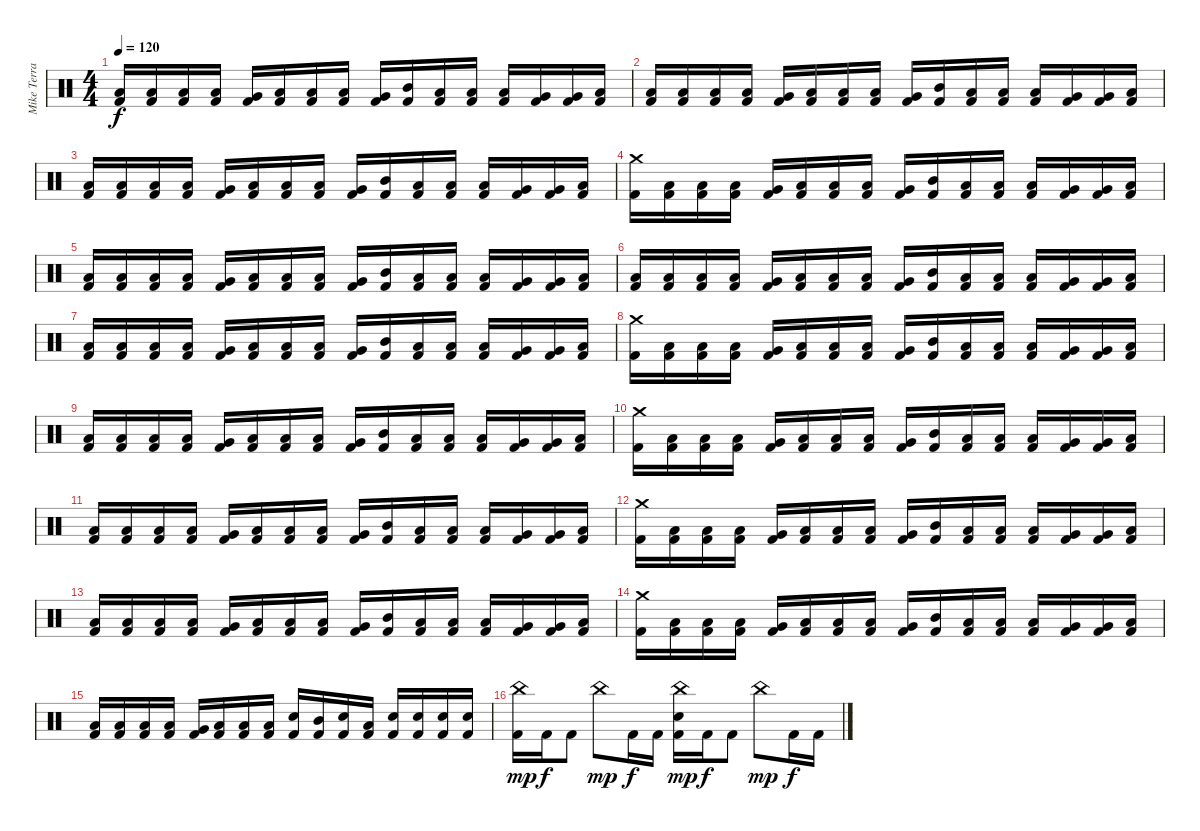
\track ("Mike Terrana" "Mike Terra") {instrument percussion}
\staff {score}
\articulation defaults
\ts (4 4)
\tempo 120
\clef neutral
\ks c
("Low Tom (hit)" "Kick (hit) 2").16{dy f} ("Low Floor Tom (hit)" "Kick (hit) 2").16 ("Low Floor Tom (hit)" "Kick (hit) 2").16 ("Low Floor Tom (hit)" "Kick (hit) 2").16 ("Very Low Tom (hit)" "Kick (hit) 2").16 ("Low Floor Tom (hit)" "Kick (hit) 2").16 ("Low Floor Tom (hit)" "Kick (hit) 2").16 ("Low Floor Tom (hit)" "Kick (hit) 2").16 ("Very Low Tom (hit)" "Kick (hit) 2").16 ("Mid Tom (hit)" "Kick (hit) 2").16 ("Low Floor Tom (hit)" "Kick (hit) 2").16 ("Low Tom (hit)" "Kick (hit) 2").16 ("Low Tom (hit)" "Kick (hit) 2").16 ("Very Low Tom (hit)" "Kick (hit) 2").16 ("Very Low Tom (hit)" "Kick (hit) 2").16 ("Low Floor Tom (hit)" "Kick (hit) 2").16 |
("Low Tom (hit)" "Kick (hit) 2").16 ("Low Floor Tom (hit)" "Kick (hit) 2").16 ("Low Floor Tom (hit)" "Kick (hit) 2").16 ("Low Floor Tom (hit)" "Kick (hit) 2").16 ("Very Low Tom (hit)" "Kick (hit) 2").16 ("Low Floor Tom (hit)" "Kick (hit) 2").16 ("Low Floor Tom (hit)" "Kick (hit) 2").16 ("Low Floor Tom (hit)" "Kick (hit) 2").16 ("Very Low Tom (hit)" "Kick (hit) 2").16 ("Mid Tom (hit)" "Kick (hit) 2").16 ("Low Floor Tom (hit)" "Kick (hit) 2").16 ("Low Tom (hit)" "Kick (hit) 2").16 ("Low Tom (hit)" "Kick (hit) 2").16 ("Very Low Tom (hit)" "Kick (hit) 2").16 ("Very Low Tom (hit)" "Kick (hit) 2").16 ("Low Floor Tom (hit)" "Kick (hit) 2").16 |
("Low Tom (hit)" "Kick (hit) 2").16 ("Low Floor Tom (hit)" "Kick (hit) 2").16 ("Low Floor Tom (hit)" "Kick (hit) 2").16 ("Low Floor Tom (hit)" "Kick (hit) 2").16 ("Very Low Tom (hit)" "Kick (hit) 2").16 ("Low Floor Tom (hit)" "Kick (hit) 2").16 ("Low Floor Tom (hit)" "Kick (hit) 2").16 ("Low Floor Tom (hit)" "Kick (hit) 2").16 ("Very Low Tom (hit)" "Kick (hit) 2").16 ("Mid Tom (hit)" "Kick (hit) 2").16 ("Low Floor Tom (hit)" "Kick (hit) 2").16 ("Low Tom (hit)" "Kick (hit) 2").16 ("Low Tom (hit)" "Kick (hit) 2").16 ("Very Low Tom (hit)" "Kick (hit) 2").16 ("Very Low Tom (hit)" "Kick (hit) 2").16 ("Low Floor Tom (hit)" "Kick (hit) 2").16 |
("Crash medium (hit)" "Kick (hit) 2").16 ("Low Floor Tom (hit)" "Kick (hit) 2").16 ("Low Floor Tom (hit)" "Kick (hit) 2").16 ("Low Floor Tom (hit)" "Kick (hit) 2").16 ("Very Low Tom (hit)" "Kick (hit) 2").16 ("Low Floor Tom (hit)" "Kick (hit) 2").16 ("Low Floor Tom (hit)" "Kick (hit) 2").16 ("Low Floor Tom (hit)" "Kick (hit) 2").16 ("Very Low Tom (hit)" "Kick (hit) 2").16 ("Mid Tom (hit)" "Kick (hit) 2").16 ("Low Floor Tom (hit)" "Kick (hit) 2").16 ("Low Tom (hit)" "Kick (hit) 2").16 ("Low Tom (hit)" "Kick (hit) 2").16 ("Very Low Tom (hit)" "Kick (hit) 2").16 ("Very Low Tom (hit)" "Kick (hit) 2").16 ("Low Floor Tom (hit)" "Kick (hit) 2").16 |
("Low Tom (hit)" "Kick (hit) 2").16 ("Low Floor Tom (hit)" "Kick (hit) 2").16 ("Low Floor Tom (hit)" "Kick (hit) 2").16 ("Low Floor Tom (hit)" "Kick (hit) 2").16 ("Very Low Tom (hit)" "Kick (hit) 2").16 ("Low Floor Tom (hit)" "Kick (hit) 2").16 ("Low Floor Tom (hit)" "Kick (hit) 2").16 ("Low Floor Tom (hit)" "Kick (hit) 2").16 ("Very Low Tom (hit)" "Kick (hit) 2").16 ("Mid Tom (hit)" "Kick (hit) 2").16 ("Low Floor Tom (hit)" "Kick (hit) 2").16 ("Low Tom (hit)" "Kick (hit) 2").16 ("Low Tom (hit)" "Kick (hit) 2").16 ("Very Low Tom (hit)" "Kick (hit) 2").16 ("Very Low Tom (hit)" "Kick (hit) 2").16 ("Low Floor Tom (hit)" "Kick (hit) 2").16 |
("Low Tom (hit)" "Kick (hit) 2").16 ("Low Floor Tom (hit)" "Kick (hit) 2").16 ("Low Floor Tom (hit)" "Kick (hit) 2").16 ("Low Floor Tom (hit)" "Kick (hit) 2").16 ("Very Low Tom (hit)" "Kick (hit) 2").16 ("Low Floor Tom (hit)" "Kick (hit) 2").16 ("Low Floor Tom (hit)" "Kick (hit) 2").16 ("Low Floor Tom (hit)" "Kick (hit) 2").16 ("Very Low Tom (hit)" "Kick (hit) 2").16 ("Mid Tom (hit)" "Kick (hit) 2").16 ("Low Floor Tom (hit)" "Kick (hit) 2").16 ("Low Tom (hit)" "Kick (hit) 2").16 ("Low Tom (hit)" "Kick (hit) 2").16 ("Very Low Tom (hit)" "Kick (hit) 2").16 ("Very Low Tom (hit)" "Kick (hit) 2").16 ("Low Floor Tom (hit)" "Kick (hit) 2").16 |
("Low Tom (hit)" "Kick (hit) 2").16 ("Low Floor Tom (hit)" "Kick (hit) 2").16 ("Low Floor Tom (hit)" "Kick (hit) 2").16 ("Low Floor Tom (hit)" "Kick (hit) 2").16 ("Very Low Tom (hit)" "Kick (hit) 2").16 ("Low Floor Tom (hit)" "Kick (hit) 2").16 ("Low Floor Tom (hit)" "Kick (hit) 2").16 ("Low Floor Tom (hit)" "Kick (hit) 2").16 ("Very Low Tom (hit)" "Kick (hit) 2").16 ("Mid Tom (hit)" "Kick (hit) 2").16 ("Low Floor Tom (hit)" "Kick (hit) 2").16 ("Low Tom (hit)" "Kick (hit) 2").16 ("Low Tom (hit)" "Kick (hit) 2").16 ("Very Low Tom (hit)" "Kick (hit) 2").16 ("Very Low Tom (hit)" "Kick (hit) 2").16 ("Low Floor Tom (hit)" "Kick (hit) 2").16 |
("Crash medium (hit)" "Kick (hit) 2").16 ("Low Floor Tom (hit)" "Kick (hit) 2").16 ("Low Floor Tom (hit)" "Kick (hit) 2").16 ("Low Floor Tom (hit)" "Kick (hit) 2").16 ("Very Low Tom (hit)" "Kick (hit) 2").16 ("Low Floor Tom (hit)" "Kick (hit) 2").16 ("Low Floor Tom (hit)" "Kick (hit) 2").16 ("Low Floor Tom (hit)" "Kick (hit) 2").16 ("Very Low Tom (hit)" "Kick (hit) 2").16 ("Mid Tom (hit)" "Kick (hit) 2").16 ("Low Floor Tom (hit)" "Kick (hit) 2").16 ("Low Tom (hit)" "Kick (hit) 2").16 ("Low Tom (hit)" "Kick (hit) 2").16 ("Very Low Tom (hit)" "Kick (hit) 2").16 ("Very Low Tom (hit)" "Kick (hit) 2").16 ("Low Floor Tom (hit)" "Kick (hit) 2").16 |
("Low Tom (hit)" "Kick (hit) 2").16 ("Low Floor Tom (hit)" "Kick (hit) 2").16 ("Low Floor Tom (hit)" "Kick (hit) 2").16 ("Low Floor Tom (hit)" "Kick (hit) 2").16 ("Very Low Tom (hit)" "Kick (hit) 2").16 ("Low Floor Tom (hit)" "Kick (hit) 2").16 ("Low Floor Tom (hit)" "Kick (hit) 2").16 ("Low Floor Tom (hit)" "Kick (hit) 2").16 ("Very Low Tom (hit)" "Kick (hit) 2").16 ("Mid Tom (hit)" "Kick (hit) 2").16 ("Low Floor Tom (hit)" "Kick (hit) 2").16 ("Low Tom (hit)" "Kick (hit) 2").16 ("Low Tom (hit)" "Kick (hit) 2").16 ("Very Low Tom (hit)" "Kick (hit) 2").16 ("Very Low Tom (hit)" "Kick (hit) 2").16 ("Low Floor Tom (hit)" "Kick (hit) 2").16 |
("Crash medium (hit)" "Kick (hit) 2").16 ("Low Floor Tom (hit)" "Kick (hit) 2").16 ("Low Floor Tom (hit)" "Kick (hit) 2").16 ("Low Floor Tom (hit)" "Kick (hit) 2").16 ("Very Low Tom (hit)" "Kick (hit) 2").16 ("Low Floor Tom (hit)" "Kick (hit) 2").16 ("Low Floor Tom (hit)" "Kick (hit) 2").16 ("Low Floor Tom (hit)" "Kick (hit) 2").16 ("Very Low Tom (hit)" "Kick (hit) 2").16 ("Mid Tom (hit)" "Kick (hit) 2").16 ("Low Floor Tom (hit)" "Kick (hit) 2").16 ("Low Tom (hit)" "Kick (hit) 2").16 ("Low Tom (hit)" "Kick (hit) 2").16 ("Very Low Tom (hit)" "Kick (hit) 2").16 ("Very Low Tom (hit)" "Kick (hit) 2").16 ("Low Floor Tom (hit)" "Kick (hit) 2").16 |
("Low Tom (hit)" "Kick (hit) 2").16 ("Low Floor Tom (hit)" "Kick (hit) 2").16 ("Low Floor Tom (hit)" "Kick (hit) 2").16 ("Low Floor Tom (hit)" "Kick (hit) 2").16 ("Very Low Tom (hit)" "Kick (hit) 2").16 ("Low Floor Tom (hit)" "Kick (hit) 2").16 ("Low Floor Tom (hit)" "Kick (hit) 2").16 ("Low Floor Tom (hit)" "Kick (hit) 2").16 ("Very Low Tom (hit)" "Kick (hit) 2").16 ("Mid Tom (hit)" "Kick (hit) 2").16 ("Low Floor Tom (hit)" "Kick (hit) 2").16 ("Low Tom (hit)" "Kick (hit) 2").16 ("Low Tom (hit)" "Kick (hit) 2").16 ("Very Low Tom (hit)" "Kick (hit) 2").16 ("Very Low Tom (hit)" "Kick (hit) 2").16 ("Low Floor Tom (hit)" "Kick (hit) 2").16 |
("Crash medium (hit)" "Kick (hit) 2").16 ("Low Floor Tom (hit)" "Kick (hit) 2").16 ("Low Floor Tom (hit)" "Kick (hit) 2").16 ("Low Floor Tom (hit)" "Kick (hit) 2").16 ("Very Low Tom (hit)" "Kick (hit) 2").16 ("Low Floor Tom (hit)" "Kick (hit) 2").16 ("Low Floor Tom (hit)" "Kick (hit) 2").16 ("Low Floor Tom (hit)" "Kick (hit) 2").16 ("Very Low Tom (hit)" "Kick (hit) 2").16 ("Mid Tom (hit)" "Kick (hit) 2").16 ("Low Floor Tom (hit)" "Kick (hit) 2").16 ("Low Tom (hit)" "Kick (hit) 2").16 ("Low Tom (hit)" "Kick (hit) 2").16 ("Very Low Tom (hit)" "Kick (hit) 2").16 ("Very Low Tom (hit)" "Kick (hit) 2").16 ("Low Floor Tom (hit)" "Kick (hit) 2").16 |
("Low Tom (hit)" "Kick (hit) 2").16 ("Low Floor Tom (hit)" "Kick (hit) 2").16 ("Low Floor Tom (hit)" "Kick (hit) 2").16 ("Low Floor Tom (hit)" "Kick (hit) 2").16 ("Very Low Tom (hit)" "Kick (hit) 2").16 ("Low Floor Tom (hit)" "Kick (hit) 2").16 ("Low Floor Tom (hit)" "Kick (hit) 2").16 ("Low Floor Tom (hit)" "Kick (hit) 2").16 ("Very Low Tom (hit)" "Kick (hit) 2").16 ("Mid Tom (hit)" "Kick (hit) 2").16 ("Low Floor Tom (hit)" "Kick (hit) 2").16 ("Low Tom (hit)" "Kick (hit) 2").16 ("Low Tom (hit)" "Kick (hit) 2").16 ("Very Low Tom (hit)" "Kick (hit) 2").16 ("Very Low Tom (hit)" "Kick (hit) 2").16 ("Low Floor Tom (hit)" "Kick (hit) 2").16 |
("Crash medium (hit)" "Kick (hit) 2").16 ("Low Floor Tom (hit)" "Kick (hit) 2").16 ("Low Floor Tom (hit)" "Kick (hit) 2").16 ("Low Floor Tom (hit)" "Kick (hit) 2").16 ("Very Low Tom (hit)" "Kick (hit) 2").16 ("Low Floor Tom (hit)" "Kick (hit) 2").16 ("Low Floor Tom (hit)" "Kick (hit) 2").16 ("Low Floor Tom (hit)" "Kick (hit) 2").16 ("Very Low Tom (hit)" "Kick (hit) 2").16 ("Mid Tom (hit)" "Kick (hit) 2").16 ("Low Floor Tom (hit)" "Kick (hit) 2").16 ("Low Tom (hit)" "Kick (hit) 2").16 ("Low Tom (hit)" "Kick (hit) 2").16 ("Very Low Tom (hit)" "Kick (hit) 2").16 ("Very Low Tom (hit)" "Kick (hit) 2").16 ("Low Floor Tom (hit)" "Kick (hit) 2").16 |
("Low Tom (hit)" "Kick (hit) 2").16 ("Low Floor Tom (hit)" "Kick (hit) 2").16 ("Low Floor Tom (hit)" "Kick (hit) 2").16 ("Low Floor Tom (hit)" "Kick (hit) 2").16 ("Very Low Tom (hit)" "Kick (hit) 2").16 ("Low Floor Tom (hit)" "Kick (hit) 2").16 ("Low Floor Tom (hit)" "Kick (hit) 2").16 ("Low Floor Tom (hit)" "Kick (hit) 2").16 ("Electric Snare (hit)" "Kick (hit) 2").16 ("Mid Tom (hit)" "Kick (hit) 2").16 ("Electric Snare (hit)" "Kick (hit) 2").16 ("Low Tom (hit)" "Kick (hit) 2").16 ("Electric Snare (hit)" "Kick (hit) 2").16 ("Electric Snare (hit)" "Kick (hit) 2").16 ("Electric Snare (hit)" "Kick (hit) 2").16 ("Electric Snare (hit)" "Kick (hit) 2").16 |
("China (hit)" "Kick (hit) 2").16{dy mp} "Kick (hit) 2".16{dy f} "Kick (hit) 2".8 "China (hit)".8{dy mp} "Kick (hit) 2".16{dy f} "Kick (hit) 2".16 ("China (hit)" "Electric Snare (hit)" "Kick (hit) 2").16{dy mp} "Kick (hit) 2".16{dy f} "Kick (hit) 2".8 "China (hit)".8{dy mp} "Kick (hit) 2".16{dy f} "Kick (hit) 2".16
